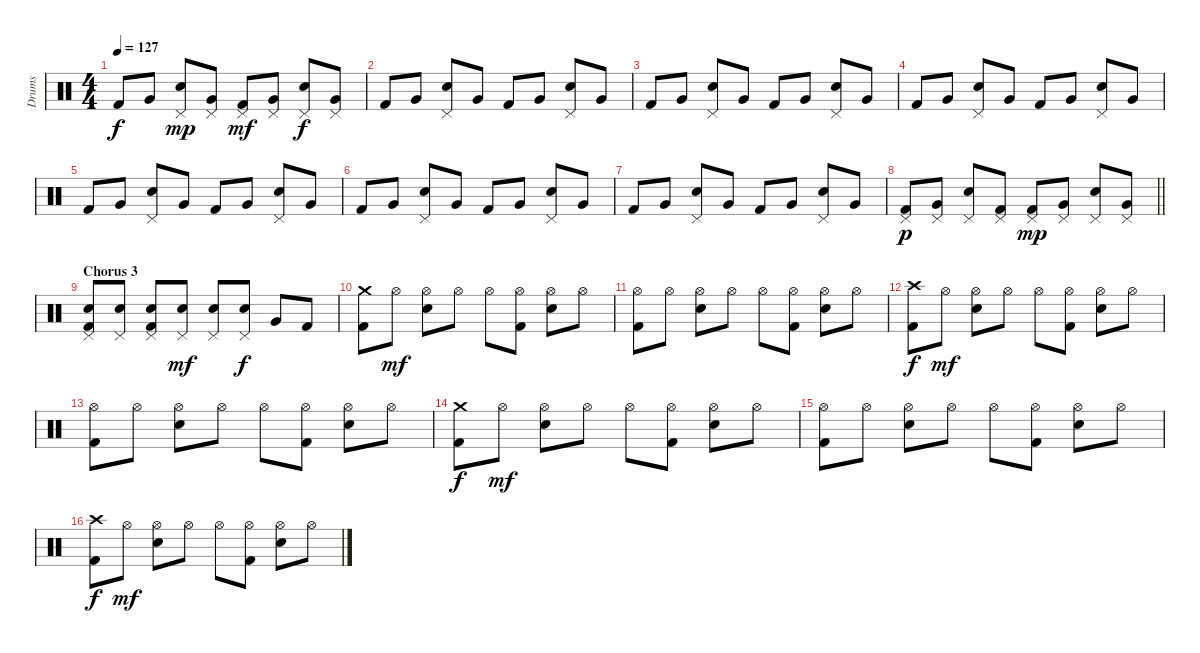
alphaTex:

\track ("Drums" "Drums") {instrument percussion}
\staff {score}
\articulation defaults
\ts (4 4)
\tempo 127
\clef neutral
\ks c "Kick (hit) 2".8{dy f} "Very Low Tom (hit)".8
("Pedal Hi-Hat (hit)" "Snare (hit) 2").8{dy mp} ("Pedal Hi-Hat (hit)" "Very Low Tom (hit)").8 ("Pedal Hi-Hat (hit)" "Kick (hit) 2").8{dy mf} ("Pedal Hi-Hat (hit)" "Very Low Tom (hit)").8 ("Pedal Hi-Hat (hit)" "Snare (hit) 2").8{dy f} ("Pedal Hi-Hat (hit)" "Very Low Tom (hit)").8 |
"Kick (hit) 2".8 "Very Low Tom (hit)".8 ("Pedal Hi-Hat (hit)" "Snare (hit) 2").8 "Very Low Tom (hit)".8 "Kick (hit) 2".8 "Very Low Tom (hit)".8 ("Pedal Hi-Hat (hit)" "Snare (hit) 2").8 "Very Low Tom (hit)".8 |
"Kick (hit) 2".8 "Very Low Tom (hit)".8 ("Pedal Hi-Hat (hit)" "Snare (hit) 2").8 "Very Low Tom (hit)".8 "Kick (hit) 2".8 "Very Low Tom (hit)".8 ("Pedal Hi-Hat (hit)" "Snare (hit) 2").8 "Very Low Tom (hit)".8 |
"Kick (hit) 2".8 "Very Low Tom (hit)".8 ("Pedal Hi-Hat (hit)" "Snare (hit) 2").8 "Very Low Tom (hit)".8 "Kick (hit) 2".8 "Very Low Tom (hit)".8 ("Pedal Hi-Hat (hit)" "Snare (hit) 2").8 "Very Low Tom (hit)".8 |
"Kick (hit) 2".8 "Very Low Tom (hit)".8 ("Pedal Hi-Hat (hit)" "Snare (hit) 2").8 "Very Low Tom (hit)".8 "Kick (hit) 2".8 "Very Low Tom (hit)".8 ("Pedal Hi-Hat (hit)" "Snare (hit) 2").8 "Very Low Tom (hit)".8 |
"Kick (hit) 2".8 "Very Low Tom (hit)".8 ("Pedal Hi-Hat (hit)" "Snare (hit) 2").8 "Very Low Tom (hit)".8 "Kick (hit) 2".8 "Very Low Tom (hit)".8 ("Pedal Hi-Hat (hit)" "Snare (hit) 2").8 "Very Low Tom (hit)".8 |
"Kick (hit) 2".8 "Very Low Tom (hit)".8 ("Pedal Hi-Hat (hit)" "Snare (hit) 2").8 "Very Low Tom (hit)".8 "Kick (hit) 2".8 "Very Low Tom (hit)".8 ("Pedal Hi-Hat (hit)" "Snare (hit) 2").8 "Very Low Tom (hit)".8 |
\barLineRight lightlight
("Pedal Hi-Hat (hit)" "Kick (hit) 2").8{dy p} ("Pedal Hi-Hat (hit)" "Very Low Tom (hit)").8 ("Pedal Hi-Hat (hit)" "Snare (hit) 2").8 ("Pedal Hi-Hat (hit)" "Kick (hit) 2").8 ("Pedal Hi-Hat (hit)" "Kick (hit) 2").8{dy mp} ("Pedal Hi-Hat (hit)" "Very Low Tom (hit)").8 ("Pedal Hi-Hat (hit)" "Snare (hit) 2").8 ("Pedal Hi-Hat (hit)" "Very Low Tom (hit)").8 |
\section ("" "Chorus 3")
("Pedal Hi-Hat (hit)" "Snare (hit) 2" "Kick (hit) 2").8 ("Pedal Hi-Hat (hit)" "Snare (hit) 2").8 ("Pedal Hi-Hat (hit)" "Snare (hit) 2" "Kick (hit) 2").8 ("Pedal Hi-Hat (hit)" "Snare (hit) 2").8{dy mf} ("Pedal Hi-Hat (hit)" "Snare (hit) 2").8 ("Pedal Hi-Hat (hit)" "Snare (hit) 2").8{dy f} "Very Low Tom (hit)".8 "Kick (hit) 2".8 |
("Crash medium (hit)" "Kick (hit) 2").8 "Hi-Hat (open)".8{dy mf} ("Hi-Hat (open)" "Snare (hit) 2").8 "Hi-Hat (open)".8 "Hi-Hat (open)".8 ("Hi-Hat (open)" "Kick (hit) 2").8 ("Hi-Hat (open)" "Snare (hit) 2").8 "Hi-Hat (open)".8 |
("Hi-Hat (open)" "Kick (hit) 2").8 "Hi-Hat (open)".8 ("Hi-Hat (open)" "Snare (hit) 2").8 "Hi-Hat (open)".8 "Hi-Hat (open)".8 ("Hi-Hat (open)" "Kick (hit) 2").8 ("Hi-Hat (open)" "Snare (hit) 2").8 "Hi-Hat (open)".8 |
("Crash high (hit)" "Kick (hit) 2").8{dy f} "Hi-Hat (open)".8{dy mf} ("Hi-Hat (open)" "Snare (hit) 2").8 "Hi-Hat (open)".8 "Hi-Hat (open)".8 ("Hi-Hat (open)" "Kick (hit) 2").8 ("Hi-Hat (open)" "Snare (hit) 2").8 "Hi-Hat (open)".8 |
("Hi-Hat (open)" "Kick (hit) 2").8 "Hi-Hat (open)".8 ("Hi-Hat (open)" "Snare (hit) 2").8 "Hi-Hat (open)".8 "Hi-Hat (open)".8 ("Hi-Hat (open)" "Kick (hit) 2").8 ("Hi-Hat (open)" "Snare (hit) 2").8 "Hi-Hat (open)".8 |
("Crash medium (hit)" "Kick (hit) 2").8{dy f} "Hi-Hat (open)".8{dy mf} ("Hi-Hat (open)" "Snare (hit) 2").8 "Hi-Hat (open)".8 "Hi-Hat (open)".8 ("Hi-Hat (open)" "Kick (hit) 2").8 ("Hi-Hat (open)" "Snare (hit) 2").8 "Hi-Hat (open)".8 |
("Hi-Hat (open)" "Kick (hit) 2").8 "Hi-Hat (open)".8 ("Hi-Hat (open)" "Snare (hit) 2").8 "Hi-Hat (open)".8 "Hi-Hat (open)".8 ("Hi-Hat (open)" "Kick (hit) 2").8 ("Hi-Hat (open)" "Snare (hit) 2").8 "Hi-Hat (open)".8 |
("Crash high (hit)" "Kick (hit) 2").8{dy f} "Hi-Hat (open)".8{dy mf} ("Hi-Hat (open)" "Snare (hit) 2").8 "Hi-Hat (open)".8 "Hi-Hat (open)".8 ("Hi-Hat (open)" "Kick (hit) 2").8 ("Hi-Hat (open)" "Snare (hit) 2").8 "Hi-Hat (open)".8
